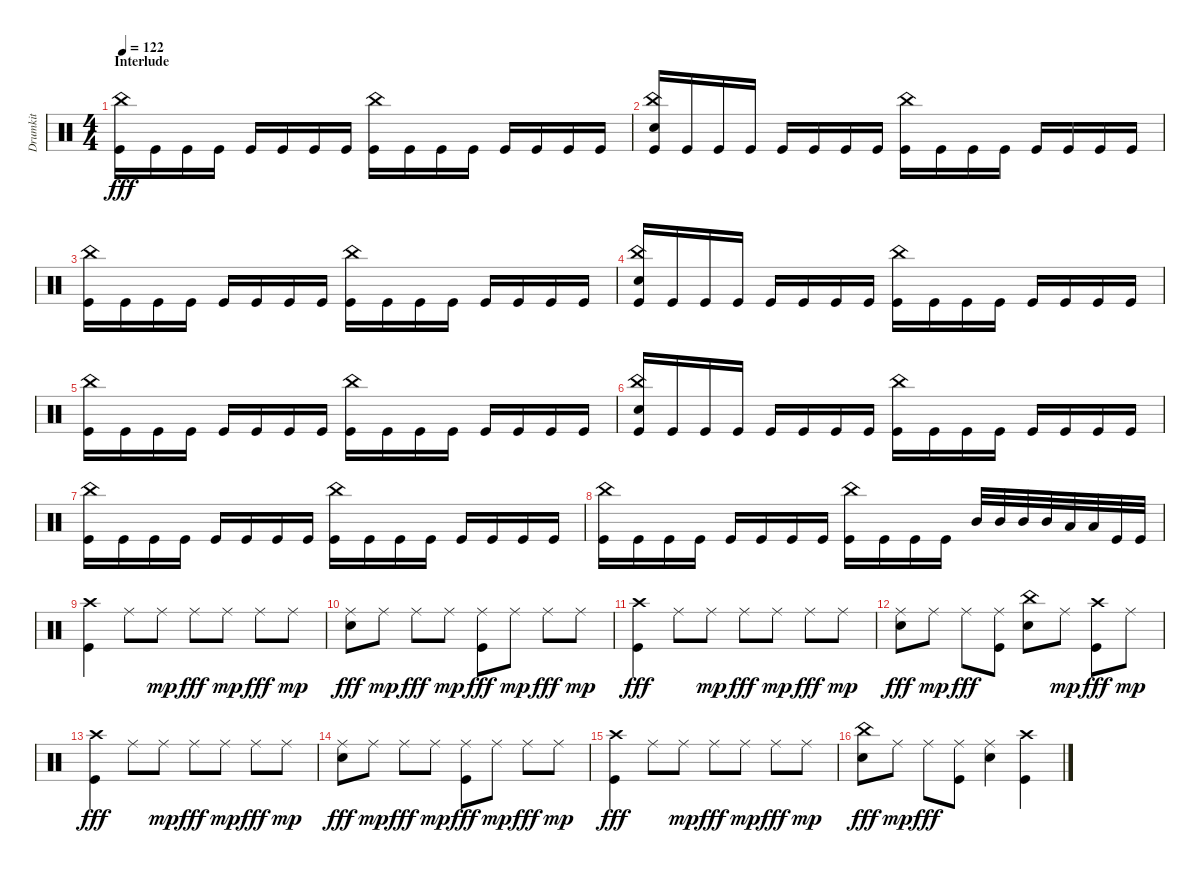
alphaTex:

\track ("Drumkit" "Drumkit") {mute instrument percussion}
\staff {score}
\articulation defaults
\ts (4 4)
\section ("" "Interlude")
\tempo 122
\clef neutral
\ks c
("Kick (hit)" "China (hit)").16{dy fff} "Kick (hit)".16 "Kick (hit)".16 "Kick (hit)".16 "Kick (hit)".16 "Kick (hit)".16 "Kick (hit)".16 "Kick (hit)".16 ("Kick (hit)" "China (hit)").16 "Kick (hit)".16 "Kick (hit)".16 "Kick (hit)".16 "Kick (hit)".16 "Kick (hit)".16 "Kick (hit)".16 "Kick (hit)".16 |
("Kick (hit)" "China (hit)" "Snare (hit) 2").16 "Kick (hit)".16 "Kick (hit)".16 "Kick (hit)".16 "Kick (hit)".16 "Kick (hit)".16 "Kick (hit)".16 "Kick (hit)".16 ("Kick (hit)" "China (hit)").16 "Kick (hit)".16 "Kick (hit)".16 "Kick (hit)".16 "Kick (hit)".16 "Kick (hit)".16 "Kick (hit)".16 "Kick (hit)".16 |
("Kick (hit)" "China (hit)").16 "Kick (hit)".16 "Kick (hit)".16 "Kick (hit)".16 "Kick (hit)".16 "Kick (hit)".16 "Kick (hit)".16 "Kick (hit)".16 ("Kick (hit)" "China (hit)").16 "Kick (hit)".16 "Kick (hit)".16 "Kick (hit)".16 "Kick (hit)".16 "Kick (hit)".16 "Kick (hit)".16 "Kick (hit)".16 |
("Kick (hit)" "China (hit)" "Snare (hit) 2").16 "Kick (hit)".16 "Kick (hit)".16 "Kick (hit)".16 "Kick (hit)".16 "Kick (hit)".16 "Kick (hit)".16 "Kick (hit)".16 ("Kick (hit)" "China (hit)").16 "Kick (hit)".16 "Kick (hit)".16 "Kick (hit)".16 "Kick (hit)".16 "Kick (hit)".16 "Kick (hit)".16 "Kick (hit)".16 |
("Kick (hit)" "China (hit)").16 "Kick (hit)".16 "Kick (hit)".16 "Kick (hit)".16 "Kick (hit)".16 "Kick (hit)".16 "Kick (hit)".16 "Kick (hit)".16 ("Kick (hit)" "China (hit)").16 "Kick (hit)".16 "Kick (hit)".16 "Kick (hit)".16 "Kick (hit)".16 "Kick (hit)".16 "Kick (hit)".16 "Kick (hit)".16 |
("Kick (hit)" "China (hit)" "Snare (hit) 2").16 "Kick (hit)".16 "Kick (hit)".16 "Kick (hit)".16 "Kick (hit)".16 "Kick (hit)".16 "Kick (hit)".16 "Kick (hit)".16 ("Kick (hit)" "China (hit)").16 "Kick (hit)".16 "Kick (hit)".16 "Kick (hit)".16 "Kick (hit)".16 "Kick (hit)".16 "Kick (hit)".16 "Kick (hit)".16 |
("Kick (hit)" "China (hit)").16 "Kick (hit)".16 "Kick (hit)".16 "Kick (hit)".16 "Kick (hit)".16 "Kick (hit)".16 "Kick (hit)".16 "Kick (hit)".16 ("Kick (hit)" "China (hit)").16 "Kick (hit)".16 "Kick (hit)".16 "Kick (hit)".16 "Kick (hit)".16 "Kick (hit)".16 "Kick (hit)".16 "Kick (hit)".16 |
("Kick (hit)" "China (hit)").16 "Kick (hit)".16 "Kick (hit)".16 "Kick (hit)".16 "Kick (hit)".16 "Kick (hit)".16 "Kick (hit)".16 "Kick (hit)".16 ("Kick (hit)" "China (hit)").16 "Kick (hit)".16 "Kick (hit)".16 "Kick (hit)".16 "Mid Tom (hit)".32 "Mid Tom (hit)".32 "Mid Tom (hit)".32 "Mid Tom (hit)".32 "Low Tom (hit)".32 "Low Tom (hit)".32 "Kick (hit)".32 "Kick (hit)".32 |
("Crash high (hit)" "Kick (hit)").4 "Ride (middle)".8 "Ride (middle)".8{dy mp} "Ride (middle)".8{dy fff} "Ride (middle)".8{dy mp} "Ride (middle)".8{dy fff} "Ride (middle)".8{dy mp} |
("Ride (middle)" "Snare (hit) 2").8{dy fff} "Ride (middle)".8{dy mp} "Ride (middle)".8{dy fff} "Ride (middle)".8{dy mp} ("Ride (middle)" "Kick (hit)").8{dy fff} "Ride (middle)".8{dy mp} "Ride (middle)".8{dy fff} "Ride (middle)".8{dy mp} |
("Crash high (hit)" "Kick (hit)").4{dy fff} "Ride (middle)".8 "Ride (middle)".8{dy mp} "Ride (middle)".8{dy fff} "Ride (middle)".8{dy mp} "Ride (middle)".8{dy fff} "Ride (middle)".8{dy mp} |
("Ride (middle)" "Snare (hit) 2").8{dy fff} "Ride (middle)".8{dy mp} "Ride (middle)".8{dy fff} ("Kick (hit)" "Ride (middle)").8 ("Snare (hit) 2" "China (hit)").8 "Ride (middle)".8{dy mp} ("Kick (hit)" "Crash high (hit)").8{dy fff} "Ride (middle)".8{dy mp} |
("Crash high (hit)" "Kick (hit)").4{dy fff} "Ride (middle)".8 "Ride (middle)".8{dy mp} "Ride (middle)".8{dy fff} "Ride (middle)".8{dy mp} "Ride (middle)".8{dy fff} "Ride (middle)".8{dy mp} |
("Ride (middle)" "Snare (hit) 2").8{dy fff} "Ride (middle)".8{dy mp} "Ride (middle)".8{dy fff} "Ride (middle)".8{dy mp} ("Ride (middle)" "Kick (hit)").8{dy fff} "Ride (middle)".8{dy mp} "Ride (middle)".8{dy fff} "Ride (middle)".8{dy mp} |
("Crash high (hit)" "Kick (hit)").4{dy fff} "Ride (middle)".8 "Ride (middle)".8{dy mp} "Ride (middle)".8{dy fff} "Ride (middle)".8{dy mp} "Ride (middle)".8{dy fff} "Ride (middle)".8{dy mp} |
("Snare (hit) 2" "China (hit)").8{dy fff} "Ride (middle)".8{dy mp} "Ride (middle)".8{dy fff} ("Kick (hit)" "Ride (middle)").8 ("Ride (middle)" "Snare (hit) 2").4 ("Kick (hit)" "Crash high (hit)").4
